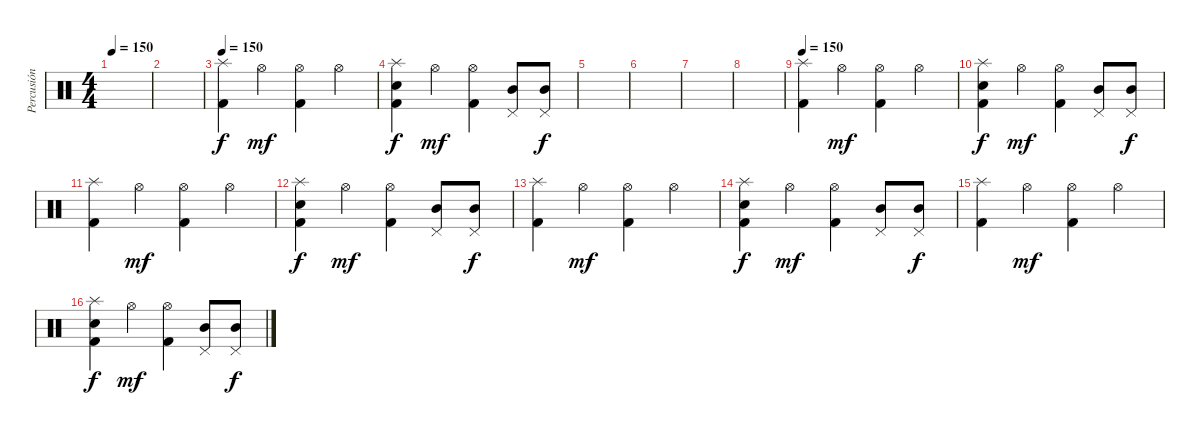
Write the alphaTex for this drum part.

\track ("Percusión" "Percusión") {instrument percussion}
\staff {score}
\articulation defaults
\ts (4 4)
\tempo 150
\clef neutral
\ks c
|
|
\tempo 150
("Splash (hit)" "Kick (hit) 2").4 "Hi-Hat (open)".4{dy mf} ("Hi-Hat (open)" "Kick (hit) 2").4 "Hi-Hat (open)".4 |
("Splash (hit)" "Electric Snare (hit)" "Kick (hit) 2").4{dy f} "Hi-Hat (open)".4{dy mf} ("Hi-Hat (open)" "Kick (hit) 2").4 ("Mid Tom (hit)" "Pedal Hi-Hat (hit)").8 ("Mid Tom (hit)" "Pedal Hi-Hat (hit)").8{dy f} |
|
|
|
|
\tempo 150
("Splash (hit)" "Kick (hit) 2").4 "Hi-Hat (open)".4{dy mf} ("Hi-Hat (open)" "Kick (hit) 2").4 "Hi-Hat (open)".4 |
("Splash (hit)" "Electric Snare (hit)" "Kick (hit) 2").4{dy f} "Hi-Hat (open)".4{dy mf} ("Hi-Hat (open)" "Kick (hit) 2").4 ("Mid Tom (hit)" "Pedal Hi-Hat (hit)").8 ("Mid Tom (hit)" "Pedal Hi-Hat (hit)").8{dy f} |
("Splash (hit)" "Kick (hit) 2").4 "Hi-Hat (open)".4{dy mf} ("Hi-Hat (open)" "Kick (hit) 2").4 "Hi-Hat (open)".4 |
("Splash (hit)" "Electric Snare (hit)" "Kick (hit) 2").4{dy f} "Hi-Hat (open)".4{dy mf} ("Hi-Hat (open)" "Kick (hit) 2").4 ("Mid Tom (hit)" "Pedal Hi-Hat (hit)").8 ("Mid Tom (hit)" "Pedal Hi-Hat (hit)").8{dy f} |
("Splash (hit)" "Kick (hit) 2").4 "Hi-Hat (open)".4{dy mf} ("Hi-Hat (open)" "Kick (hit) 2").4 "Hi-Hat (open)".4 |
("Splash (hit)" "Electric Snare (hit)" "Kick (hit) 2").4{dy f} "Hi-Hat (open)".4{dy mf} ("Hi-Hat (open)" "Kick (hit) 2").4 ("Mid Tom (hit)" "Pedal Hi-Hat (hit)").8 ("Mid Tom (hit)" "Pedal Hi-Hat (hit)").8{dy f} |
("Splash (hit)" "Kick (hit) 2").4 "Hi-Hat (open)".4{dy mf} ("Hi-Hat (open)" "Kick (hit) 2").4 "Hi-Hat (open)".4 |
("Splash (hit)" "Electric Snare (hit)" "Kick (hit) 2").4{dy f} "Hi-Hat (open)".4{dy mf} ("Hi-Hat (open)" "Kick (hit) 2").4 ("Mid Tom (hit)" "Pedal Hi-Hat (hit)").8 ("Mid Tom (hit)" "Pedal Hi-Hat (hit)").8{dy f}
